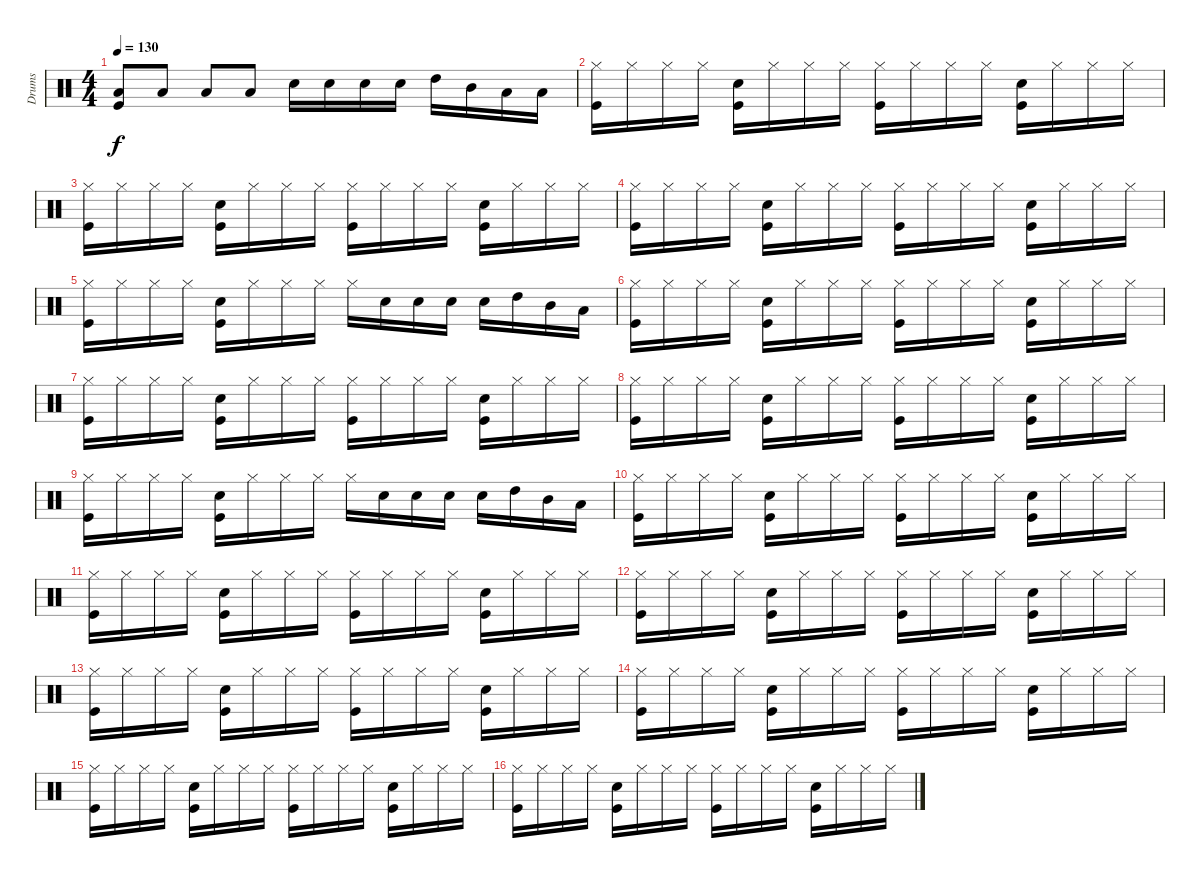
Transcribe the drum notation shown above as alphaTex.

\track ("Drums" "Drums") {instrument percussion}
\staff {score}
\articulation defaults
\ts (4 4)
\tempo 130
\clef neutral
\ks c
("Low Tom (hit)" "Kick (hit)").8{dy f} "Low Tom (hit)".8 "Low Tom (hit)".8 "Low Tom (hit)".8 "Snare (hit) 2".16 "Snare (hit) 2".16 "Snare (hit) 2".16 "Snare (hit) 2".16 "High Tom (hit)".16 "Mid Tom (hit)".16 "Low Tom (hit)".16 "Low Tom (hit)".16 |
("Hi-Hat (closed)" "Kick (hit)").16 "Hi-Hat (closed)".16 "Hi-Hat (closed)".16 "Hi-Hat (closed)".16 ("Snare (hit) 2" "Kick (hit)").16 "Hi-Hat (closed)".16 "Hi-Hat (closed)".16 "Hi-Hat (closed)".16 ("Hi-Hat (closed)" "Kick (hit)").16 "Hi-Hat (closed)".16 "Hi-Hat (closed)".16 "Hi-Hat (closed)".16 ("Snare (hit) 2" "Kick (hit)").16 "Hi-Hat (closed)".16 "Hi-Hat (closed)".16 "Hi-Hat (closed)".16 |
("Hi-Hat (closed)" "Kick (hit)").16 "Hi-Hat (closed)".16 "Hi-Hat (closed)".16 "Hi-Hat (closed)".16 ("Snare (hit) 2" "Kick (hit)").16 "Hi-Hat (closed)".16 "Hi-Hat (closed)".16 "Hi-Hat (closed)".16 ("Hi-Hat (closed)" "Kick (hit)").16 "Hi-Hat (closed)".16 "Hi-Hat (closed)".16 "Hi-Hat (closed)".16 ("Snare (hit) 2" "Kick (hit)").16 "Hi-Hat (closed)".16 "Hi-Hat (closed)".16 "Hi-Hat (closed)".16 |
("Hi-Hat (closed)" "Kick (hit)").16 "Hi-Hat (closed)".16 "Hi-Hat (closed)".16 "Hi-Hat (closed)".16 ("Snare (hit) 2" "Kick (hit)").16 "Hi-Hat (closed)".16 "Hi-Hat (closed)".16 "Hi-Hat (closed)".16 ("Hi-Hat (closed)" "Kick (hit)").16 "Hi-Hat (closed)".16 "Hi-Hat (closed)".16 "Hi-Hat (closed)".16 ("Snare (hit) 2" "Kick (hit)").16 "Hi-Hat (closed)".16 "Hi-Hat (closed)".16 "Hi-Hat (closed)".16 |
("Hi-Hat (closed)" "Kick (hit)").16 "Hi-Hat (closed)".16 "Hi-Hat (closed)".16 "Hi-Hat (closed)".16 ("Snare (hit) 2" "Kick (hit)").16 "Hi-Hat (closed)".16 "Hi-Hat (closed)".16 "Hi-Hat (closed)".16 "Hi-Hat (closed)".16 "Snare (hit) 2".16 "Snare (hit) 2".16 "Snare (hit) 2".16 "Snare (hit) 2".16 "High Tom (hit)".16 "Mid Tom (hit)".16 "Low Tom (hit)".16 |
("Hi-Hat (closed)" "Kick (hit)").16 "Hi-Hat (closed)".16 "Hi-Hat (closed)".16 "Hi-Hat (closed)".16 ("Snare (hit) 2" "Kick (hit)").16 "Hi-Hat (closed)".16 "Hi-Hat (closed)".16 "Hi-Hat (closed)".16 ("Hi-Hat (closed)" "Kick (hit)").16 "Hi-Hat (closed)".16 "Hi-Hat (closed)".16 "Hi-Hat (closed)".16 ("Snare (hit) 2" "Kick (hit)").16 "Hi-Hat (closed)".16 "Hi-Hat (closed)".16 "Hi-Hat (closed)".16 |
("Hi-Hat (closed)" "Kick (hit)").16 "Hi-Hat (closed)".16 "Hi-Hat (closed)".16 "Hi-Hat (closed)".16 ("Snare (hit) 2" "Kick (hit)").16 "Hi-Hat (closed)".16 "Hi-Hat (closed)".16 "Hi-Hat (closed)".16 ("Hi-Hat (closed)" "Kick (hit)").16 "Hi-Hat (closed)".16 "Hi-Hat (closed)".16 "Hi-Hat (closed)".16 ("Snare (hit) 2" "Kick (hit)").16 "Hi-Hat (closed)".16 "Hi-Hat (closed)".16 "Hi-Hat (closed)".16 |
("Hi-Hat (closed)" "Kick (hit)").16 "Hi-Hat (closed)".16 "Hi-Hat (closed)".16 "Hi-Hat (closed)".16 ("Snare (hit) 2" "Kick (hit)").16 "Hi-Hat (closed)".16 "Hi-Hat (closed)".16 "Hi-Hat (closed)".16 ("Hi-Hat (closed)" "Kick (hit)").16 "Hi-Hat (closed)".16 "Hi-Hat (closed)".16 "Hi-Hat (closed)".16 ("Snare (hit) 2" "Kick (hit)").16 "Hi-Hat (closed)".16 "Hi-Hat (closed)".16 "Hi-Hat (closed)".16 |
("Hi-Hat (closed)" "Kick (hit)").16 "Hi-Hat (closed)".16 "Hi-Hat (closed)".16 "Hi-Hat (closed)".16 ("Snare (hit) 2" "Kick (hit)").16 "Hi-Hat (closed)".16 "Hi-Hat (closed)".16 "Hi-Hat (closed)".16 "Hi-Hat (closed)".16 "Snare (hit) 2".16 "Snare (hit) 2".16 "Snare (hit) 2".16 "Snare (hit) 2".16 "High Tom (hit)".16 "Mid Tom (hit)".16 "Low Tom (hit)".16 |
("Hi-Hat (closed)" "Kick (hit)").16 "Hi-Hat (closed)".16 "Hi-Hat (closed)".16 "Hi-Hat (closed)".16 ("Snare (hit) 2" "Kick (hit)").16 "Hi-Hat (closed)".16 "Hi-Hat (closed)".16 "Hi-Hat (closed)".16 ("Hi-Hat (closed)" "Kick (hit)").16 "Hi-Hat (closed)".16 "Hi-Hat (closed)".16 "Hi-Hat (closed)".16 ("Snare (hit) 2" "Kick (hit)").16 "Hi-Hat (closed)".16 "Hi-Hat (closed)".16 "Hi-Hat (closed)".16 |
("Hi-Hat (closed)" "Kick (hit)").16 "Hi-Hat (closed)".16 "Hi-Hat (closed)".16 "Hi-Hat (closed)".16 ("Snare (hit) 2" "Kick (hit)").16 "Hi-Hat (closed)".16 "Hi-Hat (closed)".16 "Hi-Hat (closed)".16 ("Hi-Hat (closed)" "Kick (hit)").16 "Hi-Hat (closed)".16 "Hi-Hat (closed)".16 "Hi-Hat (closed)".16 ("Snare (hit) 2" "Kick (hit)").16 "Hi-Hat (closed)".16 "Hi-Hat (closed)".16 "Hi-Hat (closed)".16 |
("Hi-Hat (closed)" "Kick (hit)").16 "Hi-Hat (closed)".16 "Hi-Hat (closed)".16 "Hi-Hat (closed)".16 ("Snare (hit) 2" "Kick (hit)").16 "Hi-Hat (closed)".16 "Hi-Hat (closed)".16 "Hi-Hat (closed)".16 ("Hi-Hat (closed)" "Kick (hit)").16 "Hi-Hat (closed)".16 "Hi-Hat (closed)".16 "Hi-Hat (closed)".16 ("Snare (hit) 2" "Kick (hit)").16 "Hi-Hat (closed)".16 "Hi-Hat (closed)".16 "Hi-Hat (closed)".16 |
("Hi-Hat (closed)" "Kick (hit)").16 "Hi-Hat (closed)".16 "Hi-Hat (closed)".16 "Hi-Hat (closed)".16 ("Snare (hit) 2" "Kick (hit)").16 "Hi-Hat (closed)".16 "Hi-Hat (closed)".16 "Hi-Hat (closed)".16 ("Hi-Hat (closed)" "Kick (hit)").16 "Hi-Hat (closed)".16 "Hi-Hat (closed)".16 "Hi-Hat (closed)".16 ("Snare (hit) 2" "Kick (hit)").16 "Hi-Hat (closed)".16 "Hi-Hat (closed)".16 "Hi-Hat (closed)".16 |
("Hi-Hat (closed)" "Kick (hit)").16 "Hi-Hat (closed)".16 "Hi-Hat (closed)".16 "Hi-Hat (closed)".16 ("Snare (hit) 2" "Kick (hit)").16 "Hi-Hat (closed)".16 "Hi-Hat (closed)".16 "Hi-Hat (closed)".16 ("Hi-Hat (closed)" "Kick (hit)").16 "Hi-Hat (closed)".16 "Hi-Hat (closed)".16 "Hi-Hat (closed)".16 ("Snare (hit) 2" "Kick (hit)").16 "Hi-Hat (closed)".16 "Hi-Hat (closed)".16 "Hi-Hat (closed)".16 |
("Hi-Hat (closed)" "Kick (hit)").16 "Hi-Hat (closed)".16 "Hi-Hat (closed)".16 "Hi-Hat (closed)".16 ("Snare (hit) 2" "Kick (hit)").16 "Hi-Hat (closed)".16 "Hi-Hat (closed)".16 "Hi-Hat (closed)".16 ("Hi-Hat (closed)" "Kick (hit)").16 "Hi-Hat (closed)".16 "Hi-Hat (closed)".16 "Hi-Hat (closed)".16 ("Snare (hit) 2" "Kick (hit)").16 "Hi-Hat (closed)".16 "Hi-Hat (closed)".16 "Hi-Hat (closed)".16 |
("Hi-Hat (closed)" "Kick (hit)").16 "Hi-Hat (closed)".16 "Hi-Hat (closed)".16 "Hi-Hat (closed)".16 ("Snare (hit) 2" "Kick (hit)").16 "Hi-Hat (closed)".16 "Hi-Hat (closed)".16 "Hi-Hat (closed)".16 ("Hi-Hat (closed)" "Kick (hit)").16 "Hi-Hat (closed)".16 "Hi-Hat (closed)".16 "Hi-Hat (closed)".16 ("Snare (hit) 2" "Kick (hit)").16 "Hi-Hat (closed)".16 "Hi-Hat (closed)".16 "Hi-Hat (closed)".16
